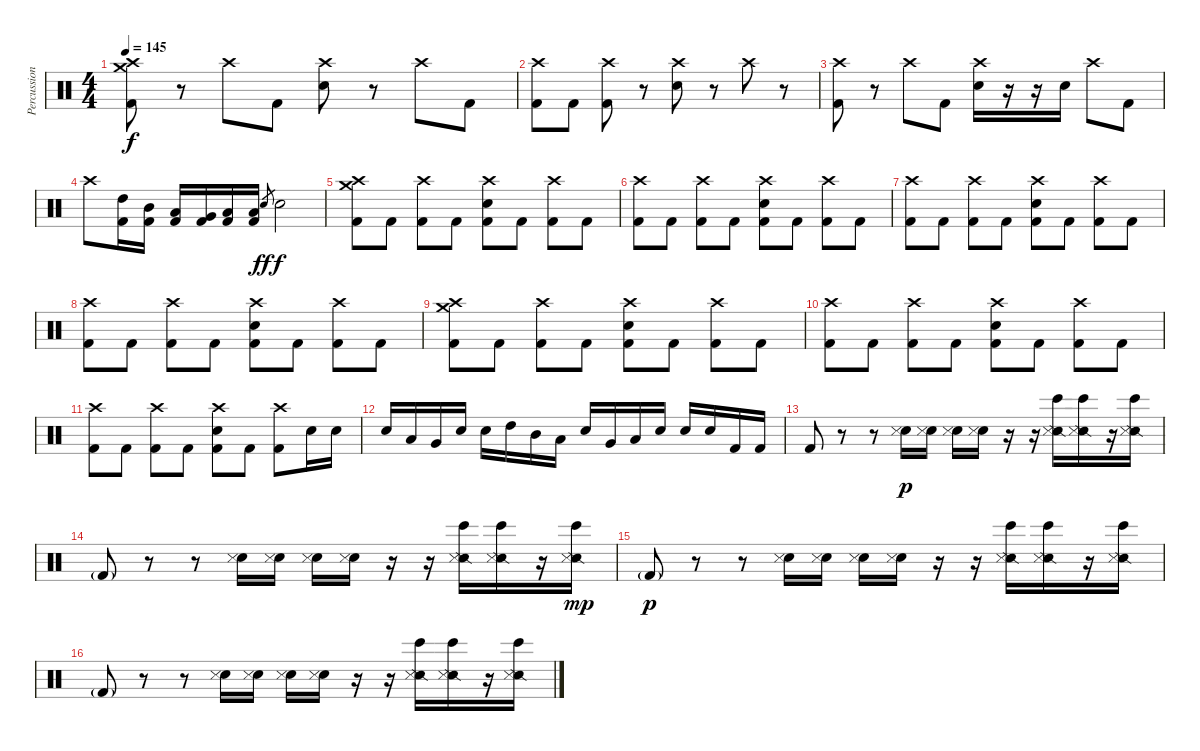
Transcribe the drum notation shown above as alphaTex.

\track ("Percussions" "Percussion") {instrument percussion}
\staff {score}
\articulation defaults
\ts (4 4)
\tempo 145
\clef neutral
\ks c
("Crash medium (hit)" "Crash high (hit)" "Kick (hit) 2").8{dy f} r.8 "Crash high (hit)".8 "Kick (hit) 2".8 ("Crash high (hit)" "Electric Snare (hit)").8 r.8 "Crash high (hit)".8 "Kick (hit) 2".8 |
("Crash high (hit)" "Kick (hit) 2").8 "Kick (hit) 2".8 ("Crash high (hit)" "Kick (hit) 2").8 r.8 ("Crash high (hit)" "Electric Snare (hit)").8 r.8 "Crash high (hit)".8 r.8 |
("Crash high (hit)" "Kick (hit) 2").8 r.8 "Crash high (hit)".8 "Kick (hit) 2".8 ("Crash high (hit)" "Electric Snare (hit)").16 r.16 r.16 "Electric Snare (hit)".16 "Crash high (hit)".8 "Kick (hit) 2".8 |
"Crash high (hit)".8 ("High Tom (hit)" "Kick (hit) 2").16 ("Mid Tom (hit)" "Kick (hit) 2").16 ("Low Tom (hit)" "Kick (hit) 2").16 ("Very Low Tom (hit)" "Kick (hit) 2").16 ("Low Floor Tom (hit)" "Kick (hit) 2").16 ("Low Floor Tom (hit)" "Kick (hit) 2").16 "Snare (hit) 2".8{gr dy ff} "Electric Snare (hit)".2{dy f} |
("Crash medium (hit)" "Crash high (hit)" "Kick (hit) 2").8 "Kick (hit) 2".8 ("Crash high (hit)" "Kick (hit) 2").8 "Kick (hit) 2".8 ("Crash high (hit)" "Electric Snare (hit)" "Kick (hit) 2").8 "Kick (hit) 2".8 ("Crash high (hit)" "Kick (hit) 2").8 "Kick (hit) 2".8 |
("Crash high (hit)" "Kick (hit) 2").8 "Kick (hit) 2".8 ("Crash high (hit)" "Kick (hit) 2").8 "Kick (hit) 2".8 ("Crash high (hit)" "Electric Snare (hit)" "Kick (hit) 2").8 "Kick (hit) 2".8 ("Crash high (hit)" "Kick (hit) 2").8 "Kick (hit) 2".8 |
("Crash high (hit)" "Kick (hit) 2").8 "Kick (hit) 2".8 ("Crash high (hit)" "Kick (hit) 2").8 "Kick (hit) 2".8 ("Crash high (hit)" "Electric Snare (hit)" "Kick (hit) 2").8 "Kick (hit) 2".8 ("Crash high (hit)" "Kick (hit) 2").8 "Kick (hit) 2".8 |
("Crash high (hit)" "Kick (hit) 2").8 "Kick (hit) 2".8 ("Crash high (hit)" "Kick (hit) 2").8 "Kick (hit) 2".8 ("Crash high (hit)" "Electric Snare (hit)" "Kick (hit) 2").8 "Kick (hit) 2".8 ("Crash high (hit)" "Kick (hit) 2").8 "Kick (hit) 2".8 |
("Crash medium (hit)" "Crash high (hit)" "Kick (hit) 2").8 "Kick (hit) 2".8 ("Crash high (hit)" "Kick (hit) 2").8 "Kick (hit) 2".8 ("Crash high (hit)" "Electric Snare (hit)" "Kick (hit) 2").8 "Kick (hit) 2".8 ("Crash high (hit)" "Kick (hit) 2").8 "Kick (hit) 2".8 |
("Crash high (hit)" "Kick (hit) 2").8 "Kick (hit) 2".8 ("Crash high (hit)" "Kick (hit) 2").8 "Kick (hit) 2".8 ("Crash high (hit)" "Electric Snare (hit)" "Kick (hit) 2").8 "Kick (hit) 2".8 ("Crash high (hit)" "Kick (hit) 2").8 "Kick (hit) 2".8 |
("Crash high (hit)" "Kick (hit) 2").8 "Kick (hit) 2".8 ("Crash high (hit)" "Kick (hit) 2").8 "Kick (hit) 2".8 ("Crash high (hit)" "Electric Snare (hit)" "Kick (hit) 2").8 "Kick (hit) 2".8 ("Crash high (hit)" "Kick (hit) 2").8 "Electric Snare (hit)".16 "Electric Snare (hit)".16 |
"Electric Snare (hit)".16 "Low Tom (hit)".16 "Very Low Tom (hit)".16 "Electric Snare (hit)".16 "Electric Snare (hit)".16 "High Tom (hit)".16 "Mid Tom (hit)".16 "Low Tom (hit)".16 "Snare (hit) 2".16 "Very Low Tom (hit)".16 "Low Floor Tom (hit)".16 "Snare (hit) 2".16 "Electric Snare (hit)".16 "Electric Snare (hit)".16 "Kick (hit) 2".16 "Kick (hit) 2".16 |
\section ("" "")
"Kick (hit) 2".8 r.8 r.8 ("Snare (hit) 2" "Snare (side stick) 3").16{dy p} ("Snare (hit) 2" "Snare (side stick) 3").16 ("Snare (hit) 2" "Snare (side stick) 3").16 ("Snare (hit) 2" "Snare (side stick) 3").16 r.16 r.16 ("Snare (side stick) 2" "Bongo High (hit)" "Metronome (hit)").16 ("Snare (side stick) 2" "Bongo High (hit)" "Metronome (hit)").16 r.16 ("Snare (side stick) 2" "Bongo High (hit)" "Metronome (hit)").16 |
"Kick (hit) 2"{g}.8 r.8 r.8 ("Snare (hit) 2" "Snare (side stick) 3").16 ("Snare (hit) 2" "Snare (side stick) 3").16 ("Snare (hit) 2" "Snare (side stick) 3").16 ("Snare (hit) 2" "Snare (side stick) 3").16 r.16 r.16 ("Snare (side stick) 2" "Bongo High (hit)" "Metronome (hit)").16 ("Snare (side stick) 2" "Bongo High (hit)" "Metronome (hit)").16 r.16 ("Snare (side stick) 2" "Bongo High (hit)" "Metronome (hit)").16{dy mp} |
"Kick (hit) 2"{g}.8{dy p} r.8 r.8 ("Snare (hit) 2" "Snare (side stick) 3").16 ("Snare (hit) 2" "Snare (side stick) 3").16 ("Snare (hit) 2" "Snare (side stick) 3").16 ("Snare (hit) 2" "Snare (side stick) 3").16 r.16 r.16 ("Snare (side stick) 2" "Bongo High (hit)" "Metronome (hit)").16 ("Snare (side stick) 2" "Bongo High (hit)" "Metronome (hit)").16 r.16 ("Snare (side stick) 2" "Bongo High (hit)" "Metronome (hit)").16 |
"Kick (hit) 2"{g}.8 r.8 r.8 ("Snare (hit) 2" "Snare (side stick) 3").16 ("Snare (hit) 2" "Snare (side stick) 3").16 ("Snare (hit) 2" "Snare (side stick) 3").16 ("Snare (hit) 2" "Snare (side stick) 3").16 r.16 r.16 ("Snare (side stick) 2" "Bongo High (hit)" "Metronome (hit)").16 ("Snare (side stick) 2" "Bongo High (hit)" "Metronome (hit)").16 r.16 ("Snare (side stick) 2" "Bongo High (hit)" "Metronome (hit)").16
